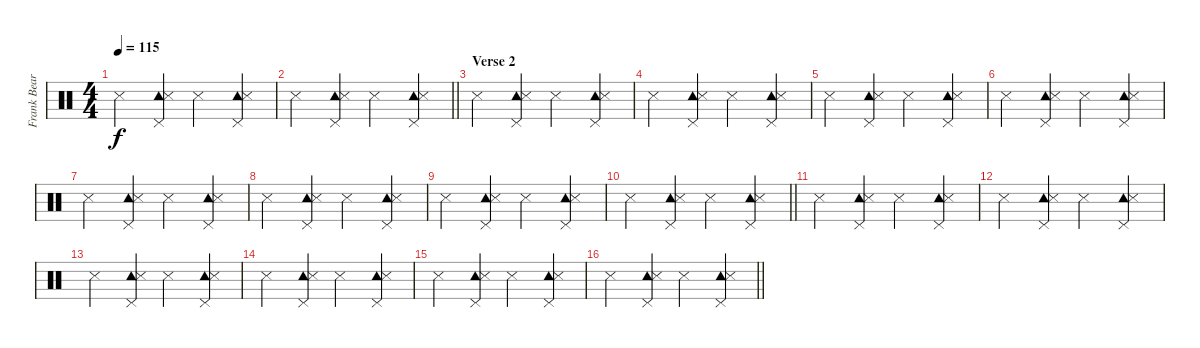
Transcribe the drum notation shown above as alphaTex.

\track ("Frank Beard" "Frank Bear") {instrument percussion}
\staff {score}
\articulation defaults
\ts (4 4)
\tempo 115
\clef neutral
\ks c "Snare (side stick) 3".4{dy f}
("Tambourine (hit)" "Snare (side stick) 3" "Pedal Hi-Hat (hit)").4 "Snare (side stick) 3".4 ("Tambourine (hit)" "Snare (side stick) 3" "Pedal Hi-Hat (hit)").4 |
\barLineRight lightlight "Snare (side stick) 3".4
("Tambourine (hit)" "Snare (side stick) 3" "Pedal Hi-Hat (hit)").4 "Snare (side stick) 3".4 ("Tambourine (hit)" "Snare (side stick) 3" "Pedal Hi-Hat (hit)").4 |
\section ("" "Verse 2")
"Snare (side stick) 3".4 ("Tambourine (hit)" "Snare (side stick) 3" "Pedal Hi-Hat (hit)").4 "Snare (side stick) 3".4 ("Tambourine (hit)" "Snare (side stick) 3" "Pedal Hi-Hat (hit)").4 |
"Snare (side stick) 3".4 ("Tambourine (hit)" "Snare (side stick) 3" "Pedal Hi-Hat (hit)").4 "Snare (side stick) 3".4 ("Tambourine (hit)" "Snare (side stick) 3" "Pedal Hi-Hat (hit)").4 |
"Snare (side stick) 3".4 ("Tambourine (hit)" "Snare (side stick) 3" "Pedal Hi-Hat (hit)").4 "Snare (side stick) 3".4 ("Tambourine (hit)" "Snare (side stick) 3" "Pedal Hi-Hat (hit)").4 |
"Snare (side stick) 3".4 ("Tambourine (hit)" "Snare (side stick) 3" "Pedal Hi-Hat (hit)").4 "Snare (side stick) 3".4 ("Tambourine (hit)" "Snare (side stick) 3" "Pedal Hi-Hat (hit)").4 |
"Snare (side stick) 3".4 ("Tambourine (hit)" "Snare (side stick) 3" "Pedal Hi-Hat (hit)").4 "Snare (side stick) 3".4 ("Tambourine (hit)" "Snare (side stick) 3" "Pedal Hi-Hat (hit)").4 |
"Snare (side stick) 3".4 ("Tambourine (hit)" "Snare (side stick) 3" "Pedal Hi-Hat (hit)").4 "Snare (side stick) 3".4 ("Tambourine (hit)" "Snare (side stick) 3" "Pedal Hi-Hat (hit)").4 |
"Snare (side stick) 3".4 ("Tambourine (hit)" "Snare (side stick) 3" "Pedal Hi-Hat (hit)").4 "Snare (side stick) 3".4 ("Tambourine (hit)" "Snare (side stick) 3" "Pedal Hi-Hat (hit)").4 |
\barLineRight lightlight "Snare (side stick) 3".4
("Tambourine (hit)" "Snare (side stick) 3" "Pedal Hi-Hat (hit)").4 "Snare (side stick) 3".4 ("Tambourine (hit)" "Snare (side stick) 3" "Pedal Hi-Hat (hit)").4 |
"Snare (side stick) 3".4 ("Tambourine (hit)" "Snare (side stick) 3" "Pedal Hi-Hat (hit)").4 "Snare (side stick) 3".4 ("Tambourine (hit)" "Snare (side stick) 3" "Pedal Hi-Hat (hit)").4 |
"Snare (side stick) 3".4 ("Tambourine (hit)" "Snare (side stick) 3" "Pedal Hi-Hat (hit)").4 "Snare (side stick) 3".4 ("Tambourine (hit)" "Snare (side stick) 3" "Pedal Hi-Hat (hit)").4 |
"Snare (side stick) 3".4 ("Tambourine (hit)" "Snare (side stick) 3" "Pedal Hi-Hat (hit)").4 "Snare (side stick) 3".4 ("Tambourine (hit)" "Snare (side stick) 3" "Pedal Hi-Hat (hit)").4 |
"Snare (side stick) 3".4 ("Tambourine (hit)" "Snare (side stick) 3" "Pedal Hi-Hat (hit)").4 "Snare (side stick) 3".4 ("Tambourine (hit)" "Snare (side stick) 3" "Pedal Hi-Hat (hit)").4 |
"Snare (side stick) 3".4 ("Tambourine (hit)" "Snare (side stick) 3" "Pedal Hi-Hat (hit)").4 "Snare (side stick) 3".4 ("Tambourine (hit)" "Snare (side stick) 3" "Pedal Hi-Hat (hit)").4 |
\barLineRight lightlight "Snare (side stick) 3".4
("Tambourine (hit)" "Snare (side stick) 3" "Pedal Hi-Hat (hit)").4 "Snare (side stick) 3".4 ("Tambourine (hit)" "Snare (side stick) 3" "Pedal Hi-Hat (hit)").4
